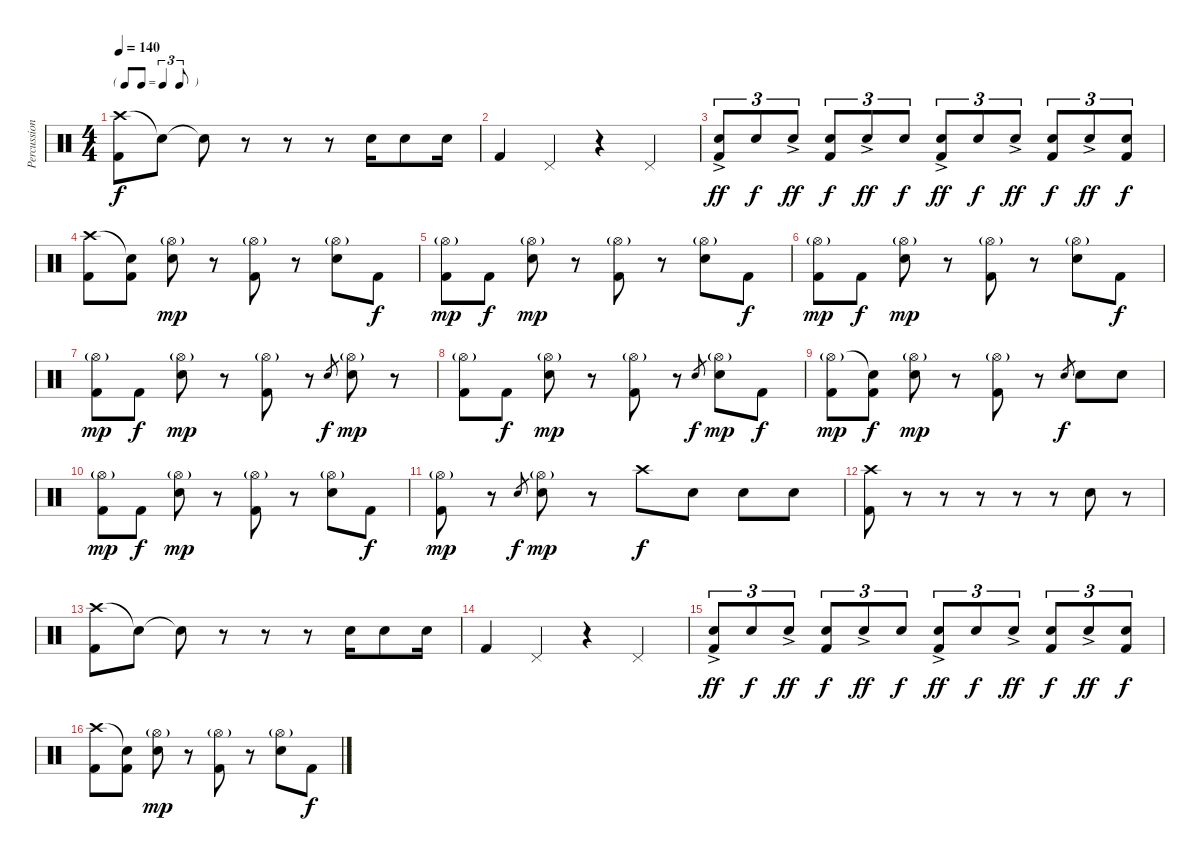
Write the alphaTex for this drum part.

\track ("Percussion" "Percussion") {instrument percussion}
\staff {score}
\articulation defaults
\ts (4 4)
\tf triplet8th
\tempo 140
\clef neutral
\ks c
("Crash high (hit)" "Kick (hit) 2").8{dy f} "Snare (hit)"{t}.8 "Snare (hit)"{t}.8 r.8 r.8 r.8 "Snare (hit) 2".16 "Snare (hit) 2".8 "Snare (hit) 2".16 |
"Kick (hit) 2".4 "Pedal Hi-Hat (hit)".4 r.4 "Pedal Hi-Hat (hit)".4 |
("Snare (hit) 2"{ac} "Kick (hit) 2").8{tu (3 2) dy ff} "Snare (hit) 2".8{tu (3 2) dy f} "Snare (hit) 2"{ac}.8{tu (3 2) dy ff} ("Snare (hit) 2" "Kick (hit) 2").8{tu (3 2) dy f} "Snare (hit) 2"{ac}.8{tu (3 2) dy ff} "Snare (hit) 2".8{tu (3 2) dy f} ("Snare (hit) 2"{ac} "Kick (hit) 2").8{tu (3 2) dy ff} "Snare (hit) 2".8{tu (3 2) dy f} "Snare (hit) 2"{ac}.8{tu (3 2) dy ff} ("Snare (hit) 2" "Kick (hit) 2").8{tu (3 2) dy f} "Snare (hit) 2"{ac}.8{tu (3 2) dy ff} ("Snare (hit) 2" "Kick (hit) 2").8{tu (3 2) dy f} |
("Crash high (hit)" "Kick (hit) 2").8 ("Snare (hit)"{t} "Kick (hit) 2").8 ("Hi-Hat (open)"{g} "Snare (hit) 2").8{dy mp} r.8 ("Hi-Hat (open)"{g} "Kick (hit) 2").8 r.8 ("Hi-Hat (open)"{g} "Snare (hit) 2").8 "Kick (hit) 2".8{dy f} |
("Hi-Hat (open)"{g} "Kick (hit) 2").8{dy mp} "Kick (hit) 2".8{dy f} ("Hi-Hat (open)"{g} "Snare (hit) 2").8{dy mp} r.8 ("Hi-Hat (open)"{g} "Kick (hit) 2").8 r.8 ("Hi-Hat (open)"{g} "Snare (hit) 2").8 "Kick (hit) 2".8{dy f} |
("Hi-Hat (open)"{g} "Kick (hit) 2").8{dy mp} "Kick (hit) 2".8{dy f} ("Hi-Hat (open)"{g} "Snare (hit) 2").8{dy mp} r.8 ("Hi-Hat (open)"{g} "Kick (hit) 2").8 r.8 ("Hi-Hat (open)"{g} "Snare (hit) 2").8 "Kick (hit) 2".8{dy f} |
("Hi-Hat (open)"{g} "Kick (hit) 2").8{dy mp} "Kick (hit) 2".8{dy f} ("Hi-Hat (open)"{g} "Snare (hit) 2").8{dy mp} r.8 ("Hi-Hat (open)"{g} "Kick (hit) 2").8 r.8 "Snare (hit) 2".8{gr dy f} ("Hi-Hat (open)"{g} "Snare (hit) 2").8{dy mp} r.8 |
("Hi-Hat (open)"{g} "Kick (hit) 2").8 "Kick (hit) 2".8{dy f} ("Hi-Hat (open)"{g} "Snare (hit) 2").8{dy mp} r.8 ("Hi-Hat (open)"{g} "Kick (hit) 2").8 r.8 "Snare (hit) 2".8{gr dy f} ("Hi-Hat (open)"{g} "Snare (hit) 2").8{dy mp} "Kick (hit) 2".8{dy f} |
("Hi-Hat (open)"{g} "Kick (hit) 2").8{dy mp} ("Snare (hit)"{t} "Kick (hit) 2").8{dy f} ("Hi-Hat (open)"{g} "Snare (hit) 2").8{dy mp} r.8 ("Hi-Hat (open)"{g} "Kick (hit) 2").8 r.8 "Snare (hit) 2".8{gr dy f} "Snare (hit) 2".8 "Snare (hit) 2".8 |
("Hi-Hat (open)"{g} "Kick (hit) 2").8{dy mp} "Kick (hit) 2".8{dy f} ("Hi-Hat (open)"{g} "Snare (hit) 2").8{dy mp} r.8 ("Hi-Hat (open)"{g} "Kick (hit) 2").8 r.8 ("Hi-Hat (open)"{g} "Snare (hit) 2").8 "Kick (hit) 2".8{dy f} |
("Hi-Hat (open)"{g} "Kick (hit) 2").8{dy mp} r.8 "Snare (hit) 2".8{gr dy f} ("Hi-Hat (open)"{g} "Snare (hit) 2").8{dy mp} r.8 "Crash high (hit)".8{dy f} "Snare (hit) 2".8 "Snare (hit) 2".8 "Snare (hit) 2".8 |
("Crash high (hit)" "Kick (hit) 2").8 r.8 r.8 r.8 r.8 r.8 "Snare (hit) 2".8 r.8 |
("Crash high (hit)" "Kick (hit) 2").8 "Snare (hit)"{t}.8 "Snare (hit)"{t}.8 r.8 r.8 r.8 "Snare (hit) 2".16 "Snare (hit) 2".8 "Snare (hit) 2".16 |
"Kick (hit) 2".4 "Pedal Hi-Hat (hit)".4 r.4 "Pedal Hi-Hat (hit)".4 |
("Snare (hit) 2"{ac} "Kick (hit) 2").8{tu (3 2) dy ff} "Snare (hit) 2".8{tu (3 2) dy f} "Snare (hit) 2"{ac}.8{tu (3 2) dy ff} ("Snare (hit) 2" "Kick (hit) 2").8{tu (3 2) dy f} "Snare (hit) 2"{ac}.8{tu (3 2) dy ff} "Snare (hit) 2".8{tu (3 2) dy f} ("Snare (hit) 2"{ac} "Kick (hit) 2").8{tu (3 2) dy ff} "Snare (hit) 2".8{tu (3 2) dy f} "Snare (hit) 2"{ac}.8{tu (3 2) dy ff} ("Snare (hit) 2" "Kick (hit) 2").8{tu (3 2) dy f} "Snare (hit) 2"{ac}.8{tu (3 2) dy ff} ("Snare (hit) 2" "Kick (hit) 2").8{tu (3 2) dy f} |
("Crash high (hit)" "Kick (hit) 2").8 ("Snare (hit)"{t} "Kick (hit) 2").8 ("Hi-Hat (open)"{g} "Snare (hit) 2").8{dy mp} r.8 ("Hi-Hat (open)"{g} "Kick (hit) 2").8 r.8 ("Hi-Hat (open)"{g} "Snare (hit) 2").8 "Kick (hit) 2".8{dy f}
